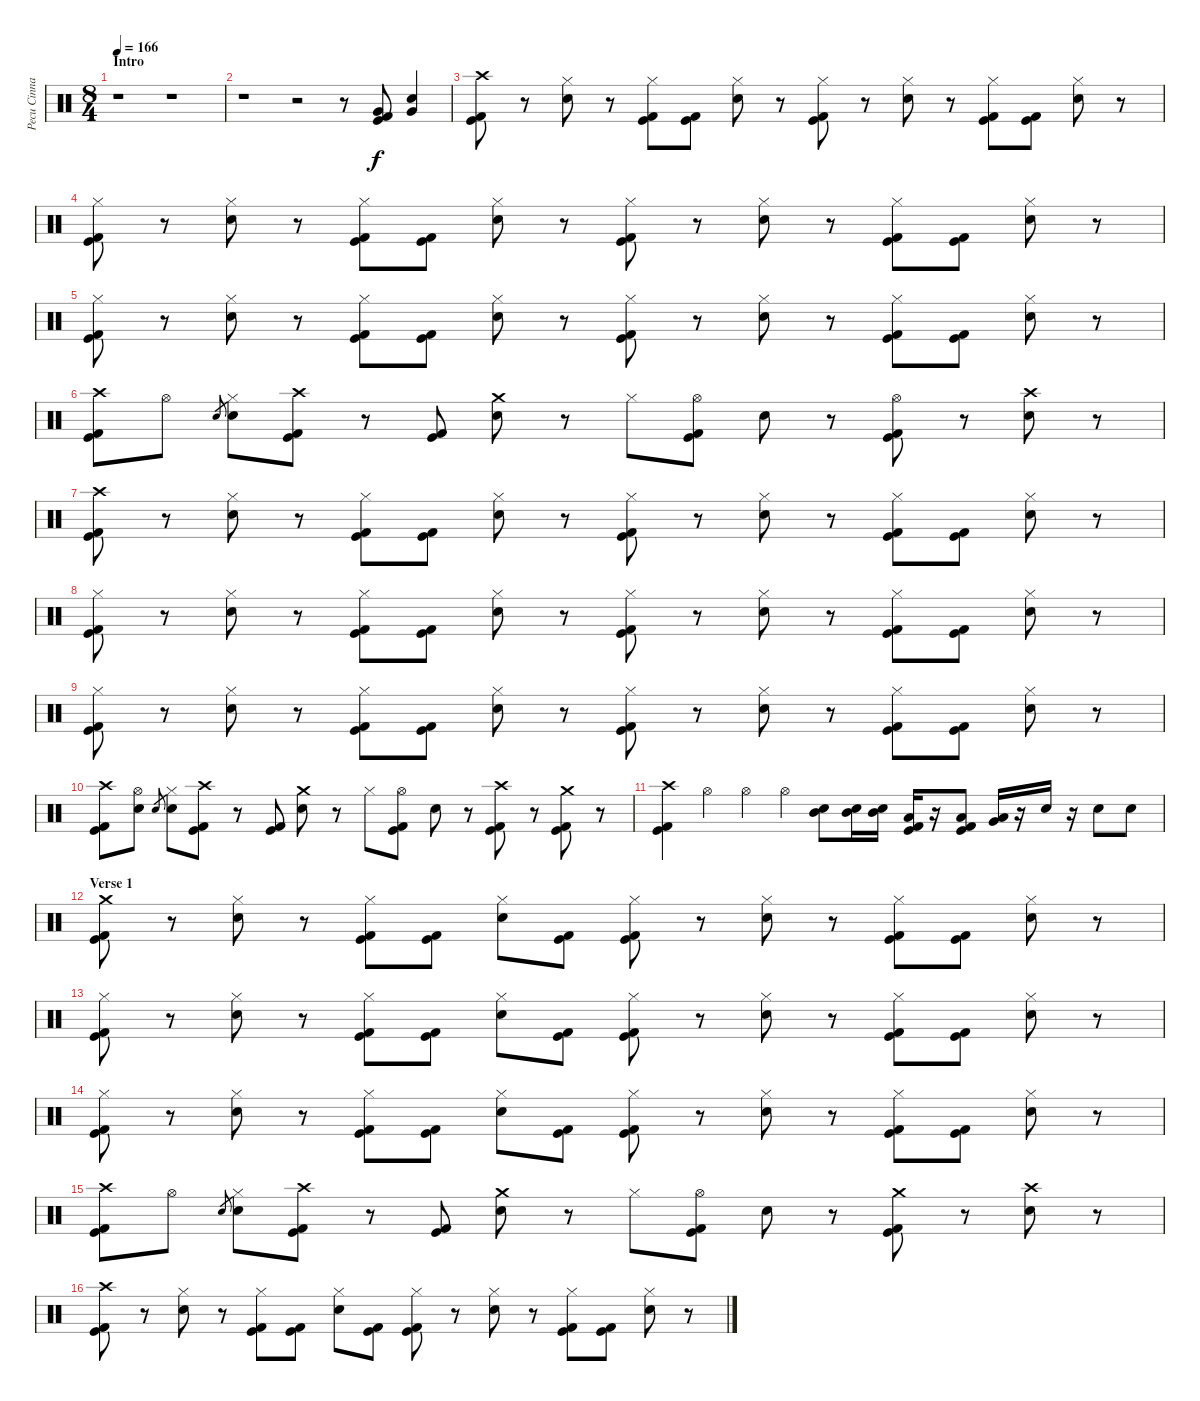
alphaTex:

\track ("Pecu Cinnari" "Pecu Cinna") {instrument percussion}
\staff {score}
\articulation defaults
\ts (8 4)
\section ("" "Intro")
\tempo 166
\clef neutral
\ks c
r.1{dy f} r.1 |
r.1 r.2 r.8 ("Very Low Tom (hit)" "Kick (hit)" "Kick (hit) 2").8 ("Very Low Tom (hit)" "Electric Snare (hit)").4 |
("Crash high (hit)" "Kick (hit)" "Kick (hit) 2").8 r.8 ("Hi-Hat (closed)" "Electric Snare (hit)").8 r.8 ("Hi-Hat (closed)" "Kick (hit)" "Kick (hit) 2").8 ("Kick (hit)" "Kick (hit) 2").8 ("Hi-Hat (closed)" "Electric Snare (hit)").8 r.8 ("Hi-Hat (closed)" "Kick (hit)" "Kick (hit) 2").8 r.8 ("Hi-Hat (closed)" "Electric Snare (hit)").8 r.8 ("Hi-Hat (closed)" "Kick (hit)" "Kick (hit) 2").8 ("Kick (hit)" "Kick (hit) 2").8 ("Hi-Hat (closed)" "Electric Snare (hit)").8 r.8 |
("Hi-Hat (closed)" "Kick (hit)" "Kick (hit) 2").8 r.8 ("Hi-Hat (closed)" "Electric Snare (hit)").8 r.8 ("Hi-Hat (closed)" "Kick (hit)" "Kick (hit) 2").8 ("Kick (hit)" "Kick (hit) 2").8 ("Hi-Hat (closed)" "Electric Snare (hit)").8 r.8 ("Hi-Hat (closed)" "Kick (hit)" "Kick (hit) 2").8 r.8 ("Hi-Hat (closed)" "Electric Snare (hit)").8 r.8 ("Hi-Hat (closed)" "Kick (hit)" "Kick (hit) 2").8 ("Kick (hit)" "Kick (hit) 2").8 ("Hi-Hat (closed)" "Electric Snare (hit)").8 r.8 |
("Hi-Hat (closed)" "Kick (hit)" "Kick (hit) 2").8 r.8 ("Hi-Hat (closed)" "Electric Snare (hit)").8 r.8 ("Hi-Hat (closed)" "Kick (hit)" "Kick (hit) 2").8 ("Kick (hit)" "Kick (hit) 2").8 ("Hi-Hat (closed)" "Electric Snare (hit)").8 r.8 ("Hi-Hat (closed)" "Kick (hit)" "Kick (hit) 2").8 r.8 ("Hi-Hat (closed)" "Electric Snare (hit)").8 r.8 ("Hi-Hat (closed)" "Kick (hit)" "Kick (hit) 2").8 ("Kick (hit)" "Kick (hit) 2").8 ("Hi-Hat (closed)" "Electric Snare (hit)").8 r.8 |
("Crash high (hit)" "Kick (hit)" "Kick (hit) 2").8 "Hi-Hat (open)".8 "Electric Snare (hit)".8{gr} ("Hi-Hat (closed)" "Electric Snare (hit)").8 ("Crash high (hit)" "Kick (hit)" "Kick (hit) 2").8 r.8 ("Kick (hit)" "Kick (hit) 2").8 ("Crash medium (hit)" "Electric Snare (hit)").8 r.8 "Hi-Hat (closed)".8 ("Hi-Hat (open)" "Kick (hit)" "Kick (hit) 2").8 "Electric Snare (hit)".8 r.8 ("Hi-Hat (open)" "Kick (hit)" "Kick (hit) 2").8 r.8 ("Crash high (hit)" "Electric Snare (hit)").8 r.8 |
("Crash high (hit)" "Kick (hit)" "Kick (hit) 2").8 r.8 ("Hi-Hat (closed)" "Electric Snare (hit)").8 r.8 ("Hi-Hat (closed)" "Kick (hit)" "Kick (hit) 2").8 ("Kick (hit)" "Kick (hit) 2").8 ("Hi-Hat (closed)" "Electric Snare (hit)").8 r.8 ("Hi-Hat (closed)" "Kick (hit)" "Kick (hit) 2").8 r.8 ("Hi-Hat (closed)" "Electric Snare (hit)").8 r.8 ("Hi-Hat (closed)" "Kick (hit)" "Kick (hit) 2").8 ("Kick (hit)" "Kick (hit) 2").8 ("Hi-Hat (closed)" "Electric Snare (hit)").8 r.8 |
("Hi-Hat (closed)" "Kick (hit)" "Kick (hit) 2").8 r.8 ("Hi-Hat (closed)" "Electric Snare (hit)").8 r.8 ("Hi-Hat (closed)" "Kick (hit)" "Kick (hit) 2").8 ("Kick (hit)" "Kick (hit) 2").8 ("Hi-Hat (closed)" "Electric Snare (hit)").8 r.8 ("Hi-Hat (closed)" "Kick (hit)" "Kick (hit) 2").8 r.8 ("Hi-Hat (closed)" "Electric Snare (hit)").8 r.8 ("Hi-Hat (closed)" "Kick (hit)" "Kick (hit) 2").8 ("Kick (hit)" "Kick (hit) 2").8 ("Hi-Hat (closed)" "Electric Snare (hit)").8 r.8 |
("Hi-Hat (closed)" "Kick (hit)" "Kick (hit) 2").8 r.8 ("Hi-Hat (closed)" "Electric Snare (hit)").8 r.8 ("Hi-Hat (closed)" "Kick (hit)" "Kick (hit) 2").8 ("Kick (hit)" "Kick (hit) 2").8 ("Hi-Hat (closed)" "Electric Snare (hit)").8 r.8 ("Hi-Hat (closed)" "Kick (hit)" "Kick (hit) 2").8 r.8 ("Hi-Hat (closed)" "Electric Snare (hit)").8 r.8 ("Hi-Hat (closed)" "Kick (hit)" "Kick (hit) 2").8 ("Kick (hit)" "Kick (hit) 2").8 ("Hi-Hat (closed)" "Electric Snare (hit)").8 r.8 |
("Crash high (hit)" "Kick (hit)" "Kick (hit) 2").8 ("Hi-Hat (open)" "Electric Snare (hit)").8 "Electric Snare (hit)".8{gr} ("Hi-Hat (closed)" "Electric Snare (hit)").8 ("Crash high (hit)" "Kick (hit)" "Kick (hit) 2").8 r.8 ("Kick (hit)" "Kick (hit) 2").8 ("Crash medium (hit)" "Electric Snare (hit)").8 r.8 "Hi-Hat (closed)".8 ("Hi-Hat (open)" "Kick (hit)" "Kick (hit) 2").8 "Electric Snare (hit)".8 r.8 ("Crash high (hit)" "Kick (hit)" "Kick (hit) 2").8 r.8 ("Crash medium (hit)" "Kick (hit)" "Kick (hit) 2").8 r.8 |
("Crash high (hit)" "Kick (hit)" "Kick (hit) 2").4 "Hi-Hat (open)".4 "Hi-Hat (open)".4 "Hi-Hat (open)".4 ("Mid Tom (hit)" "Electric Snare (hit)").8 ("Mid Tom (hit)" "Electric Snare (hit)").16 ("Mid Tom (hit)" "Electric Snare (hit)").16 ("Low Tom (hit)" "Kick (hit)" "Kick (hit) 2").16 r.16 ("Low Tom (hit)" "Kick (hit)" "Kick (hit) 2").8 ("Low Tom (hit)" "Very Low Tom (hit)").16 r.16 "Electric Snare (hit)".16 r.16 "Electric Snare (hit)".8 "Electric Snare (hit)".8 |
\section ("" "Verse 1")
("Crash medium (hit)" "Kick (hit)" "Kick (hit) 2").8 r.8 ("Hi-Hat (closed)" "Electric Snare (hit)").8 r.8 ("Hi-Hat (closed)" "Kick (hit)" "Kick (hit) 2").8 ("Kick (hit)" "Kick (hit) 2").8 ("Hi-Hat (closed)" "Electric Snare (hit)").8 ("Kick (hit)" "Kick (hit) 2").8 ("Hi-Hat (closed)" "Kick (hit)" "Kick (hit) 2").8 r.8 ("Hi-Hat (closed)" "Electric Snare (hit)").8 r.8 ("Hi-Hat (closed)" "Kick (hit)" "Kick (hit) 2").8 ("Kick (hit)" "Kick (hit) 2").8 ("Hi-Hat (closed)" "Electric Snare (hit)").8 r.8 |
("Hi-Hat (closed)" "Kick (hit)" "Kick (hit) 2").8 r.8 ("Hi-Hat (closed)" "Electric Snare (hit)").8 r.8 ("Hi-Hat (closed)" "Kick (hit)" "Kick (hit) 2").8 ("Kick (hit)" "Kick (hit) 2").8 ("Hi-Hat (closed)" "Electric Snare (hit)").8 ("Kick (hit)" "Kick (hit) 2").8 ("Hi-Hat (closed)" "Kick (hit)" "Kick (hit) 2").8 r.8 ("Hi-Hat (closed)" "Electric Snare (hit)").8 r.8 ("Hi-Hat (closed)" "Kick (hit)" "Kick (hit) 2").8 ("Kick (hit)" "Kick (hit) 2").8 ("Hi-Hat (closed)" "Electric Snare (hit)").8 r.8 |
("Hi-Hat (closed)" "Kick (hit)" "Kick (hit) 2").8 r.8 ("Hi-Hat (closed)" "Electric Snare (hit)").8 r.8 ("Hi-Hat (closed)" "Kick (hit)" "Kick (hit) 2").8 ("Kick (hit)" "Kick (hit) 2").8 ("Hi-Hat (closed)" "Electric Snare (hit)").8 ("Kick (hit)" "Kick (hit) 2").8 ("Hi-Hat (closed)" "Kick (hit)" "Kick (hit) 2").8 r.8 ("Hi-Hat (closed)" "Electric Snare (hit)").8 r.8 ("Hi-Hat (closed)" "Kick (hit)" "Kick (hit) 2").8 ("Kick (hit)" "Kick (hit) 2").8 ("Hi-Hat (closed)" "Electric Snare (hit)").8 r.8 |
("Crash high (hit)" "Kick (hit)" "Kick (hit) 2").8 "Hi-Hat (open)".8 "Electric Snare (hit)".8{gr} ("Hi-Hat (closed)" "Electric Snare (hit)").8 ("Crash high (hit)" "Kick (hit)" "Kick (hit) 2").8 r.8 ("Kick (hit)" "Kick (hit) 2").8 ("Crash medium (hit)" "Electric Snare (hit)").8 r.8 "Hi-Hat (closed)".8 ("Hi-Hat (open)" "Kick (hit)" "Kick (hit) 2").8 "Electric Snare (hit)".8 r.8 ("Crash medium (hit)" "Kick (hit)" "Kick (hit) 2").8 r.8 ("Crash high (hit)" "Electric Snare (hit)").8 r.8 |
("Crash high (hit)" "Kick (hit)" "Kick (hit) 2").8 r.8 ("Hi-Hat (closed)" "Electric Snare (hit)").8 r.8 ("Hi-Hat (closed)" "Kick (hit)" "Kick (hit) 2").8 ("Kick (hit)" "Kick (hit) 2").8 ("Hi-Hat (closed)" "Electric Snare (hit)").8 ("Kick (hit)" "Kick (hit) 2").8 ("Hi-Hat (closed)" "Kick (hit)" "Kick (hit) 2").8 r.8 ("Hi-Hat (closed)" "Electric Snare (hit)").8 r.8 ("Hi-Hat (closed)" "Kick (hit)" "Kick (hit) 2").8 ("Kick (hit)" "Kick (hit) 2").8 ("Hi-Hat (closed)" "Electric Snare (hit)").8 r.8
